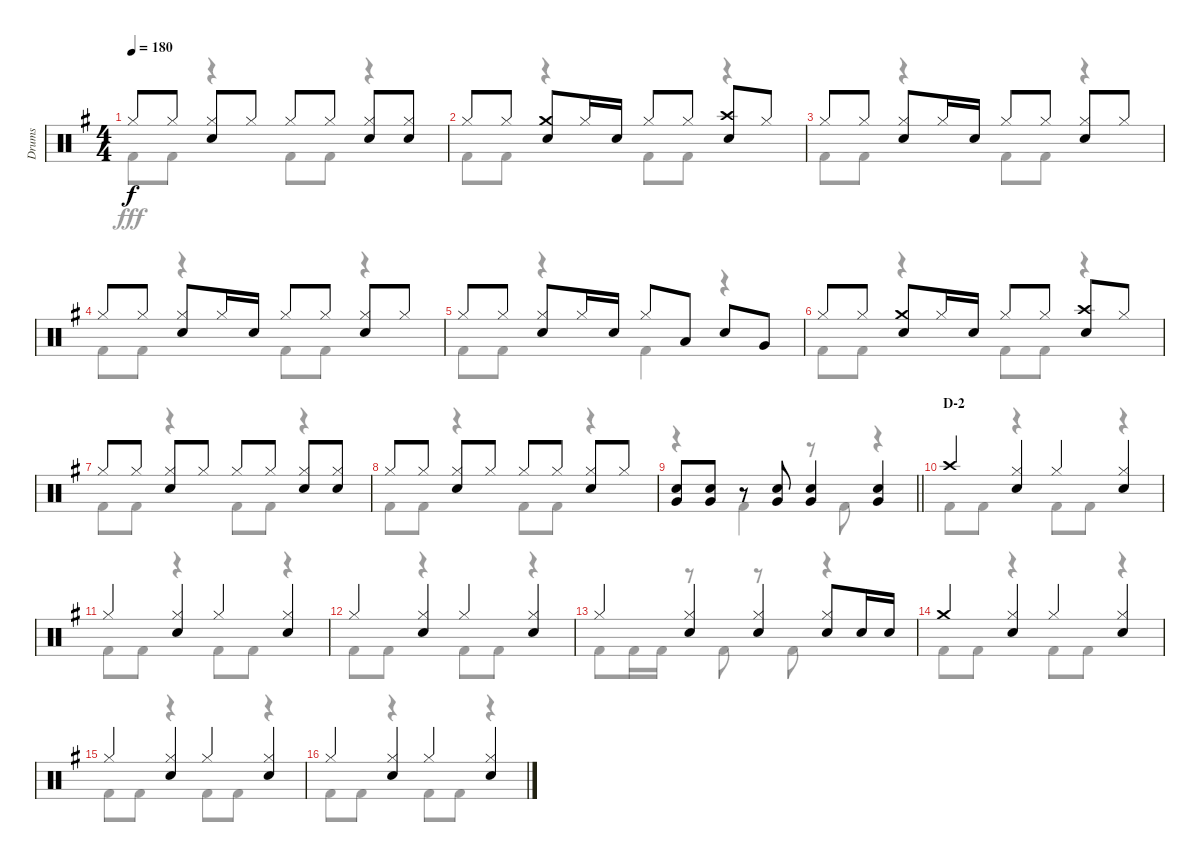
\track ("Drums" "Drums") {instrument percussion}
\staff {score}
\articulation defaults
\voice
\ts (4 4)
\tempo 180
\clef neutral
\ks g "Hi-Hat (closed)".8{dy f} "Hi-Hat (closed)".8
("Hi-Hat (closed)" "Snare (hit) 2").8 "Hi-Hat (closed)".8 "Hi-Hat (closed)".8 "Hi-Hat (closed)".8 ("Hi-Hat (closed)" "Snare (hit) 2").8 ("Hi-Hat (closed)" "Snare (hit) 2").8 |
"Hi-Hat (closed)".8 "Hi-Hat (closed)".8 ("Crash medium (hit)" "Snare (hit) 2").8 "Hi-Hat (closed)".16 "Snare (hit) 2".16 "Hi-Hat (closed)".8 "Hi-Hat (closed)".8 ("Crash high (hit)" "Snare (hit) 2").8 "Hi-Hat (closed)".8 |
"Hi-Hat (closed)".8 "Hi-Hat (closed)".8 ("Hi-Hat (closed)" "Snare (hit) 2").8 "Hi-Hat (closed)".16 "Snare (hit) 2".16 "Hi-Hat (closed)".8 "Hi-Hat (closed)".8 ("Hi-Hat (closed)" "Snare (hit) 2").8 "Hi-Hat (closed)".8 |
"Hi-Hat (closed)".8 "Hi-Hat (closed)".8 ("Hi-Hat (closed)" "Snare (hit) 2").8 "Hi-Hat (closed)".16 "Snare (hit) 2".16 "Hi-Hat (closed)".8 "Hi-Hat (closed)".8 ("Hi-Hat (closed)" "Snare (hit) 2").8 "Hi-Hat (closed)".8 |
"Hi-Hat (closed)".8 "Hi-Hat (closed)".8 ("Hi-Hat (closed)" "Snare (hit) 2").8 "Hi-Hat (closed)".16 "Snare (hit) 2".16 "Hi-Hat (closed)".8 "Low Tom (hit)".8 "Snare (hit) 2".8 "Very Low Tom (hit)".8 |
"Hi-Hat (closed)".8 "Hi-Hat (closed)".8 ("Crash medium (hit)" "Snare (hit) 2").8 "Hi-Hat (closed)".16 "Snare (hit) 2".16 "Hi-Hat (closed)".8 "Hi-Hat (closed)".8 ("Crash high (hit)" "Snare (hit) 2").8 "Hi-Hat (closed)".8 |
"Hi-Hat (closed)".8 "Hi-Hat (closed)".8 ("Hi-Hat (closed)" "Snare (hit) 2").8 "Hi-Hat (closed)".8 "Hi-Hat (closed)".8 "Hi-Hat (closed)".8 ("Hi-Hat (closed)" "Snare (hit) 2").8 ("Hi-Hat (closed)" "Snare (hit) 2").8 |
"Hi-Hat (closed)".8 "Hi-Hat (closed)".8 ("Hi-Hat (closed)" "Snare (hit) 2").8 "Hi-Hat (closed)".8 "Hi-Hat (closed)".8 "Hi-Hat (closed)".8 ("Hi-Hat (closed)" "Snare (hit) 2").8 "Hi-Hat (closed)".8 |
\barLineRight lightlight
("Snare (hit) 2" "Very Low Tom (hit)").8 ("Snare (hit) 2" "Very Low Tom (hit)").8 r.8 ("Snare (hit) 2" "Very Low Tom (hit)").8 ("Snare (hit) 2" "Very Low Tom (hit)").4 ("Snare (hit) 2" "Very Low Tom (hit)").4 |
\section ("" "D-2")
"Crash high (hit)".4 ("Hi-Hat (closed)" "Snare (hit) 2").4 "Hi-Hat (closed)".4 ("Hi-Hat (closed)" "Snare (hit) 2").4 |
"Hi-Hat (closed)".4 ("Hi-Hat (closed)" "Snare (hit) 2").4 "Hi-Hat (closed)".4 ("Hi-Hat (closed)" "Snare (hit) 2").4 |
"Hi-Hat (closed)".4 ("Hi-Hat (closed)" "Snare (hit) 2").4 "Hi-Hat (closed)".4 ("Hi-Hat (closed)" "Snare (hit) 2").4 |
"Hi-Hat (closed)".4 ("Hi-Hat (closed)" "Snare (hit) 2").4 ("Hi-Hat (closed)" "Snare (hit) 2").4 ("Hi-Hat (closed)" "Snare (hit) 2").8 "Snare (hit) 2".16 "Snare (hit) 2".16 |
"Crash medium (hit)".4 ("Hi-Hat (closed)" "Snare (hit) 2").4 "Hi-Hat (closed)".4 ("Hi-Hat (closed)" "Snare (hit) 2").4 |
"Hi-Hat (closed)".4 ("Hi-Hat (closed)" "Snare (hit) 2").4 "Hi-Hat (closed)".4 ("Hi-Hat (closed)" "Snare (hit) 2").4 |
"Hi-Hat (closed)".4 ("Hi-Hat (closed)" "Snare (hit) 2").4 "Hi-Hat (closed)".4 ("Hi-Hat (closed)" "Snare (hit) 2").4
\voice
\clef neutral
\ottava regular
\simile none
\ks g "Kick (hit) 2".8{dy fff} "Kick (hit) 2".8
r.4 "Kick (hit) 2".8 "Kick (hit) 2".8 r.4 |
"Kick (hit) 2".8 "Kick (hit) 2".8 r.4 "Kick (hit) 2".8 "Kick (hit) 2".8 r.4 |
"Kick (hit) 2".8 "Kick (hit) 2".8 r.4 "Kick (hit) 2".8 "Kick (hit) 2".8 r.4 |
"Kick (hit) 2".8 "Kick (hit) 2".8 r.4 "Kick (hit) 2".8 "Kick (hit) 2".8 r.4 |
"Kick (hit) 2".8 "Kick (hit) 2".8 r.4 "Kick (hit) 2".4 r.4 |
"Kick (hit) 2".8 "Kick (hit) 2".8 r.4 "Kick (hit) 2".8 "Kick (hit) 2".8 r.4 |
"Kick (hit) 2".8 "Kick (hit) 2".8 r.4 "Kick (hit) 2".8 "Kick (hit) 2".8 r.4 |
"Kick (hit) 2".8 "Kick (hit) 2".8 r.4 "Kick (hit) 2".8 "Kick (hit) 2".8 r.4 |
\barLineRight lightlight
r.4 "Kick (hit) 2".4 r.8 "Kick (hit) 2".8 r.4 |
"Kick (hit) 2".8 "Kick (hit) 2".8 r.4 "Kick (hit) 2".8 "Kick (hit) 2".8 r.4 |
"Kick (hit) 2".8 "Kick (hit) 2".8 r.4 "Kick (hit) 2".8 "Kick (hit) 2".8 r.4 |
"Kick (hit) 2".8 "Kick (hit) 2".8 r.4 "Kick (hit) 2".8 "Kick (hit) 2".8 r.4 |
"Kick (hit) 2".8 "Kick (hit) 2".16 "Kick (hit) 2".16 r.8 "Kick (hit) 2".8 r.8 "Kick (hit) 2".8 r.4 |
"Kick (hit) 2".8 "Kick (hit) 2".8 r.4 "Kick (hit) 2".8 "Kick (hit) 2".8 r.4 |
"Kick (hit) 2".8 "Kick (hit) 2".8 r.4 "Kick (hit) 2".8 "Kick (hit) 2".8 r.4 |
"Kick (hit) 2".8 "Kick (hit) 2".8 r.4 "Kick (hit) 2".8 "Kick (hit) 2".8 r.4
